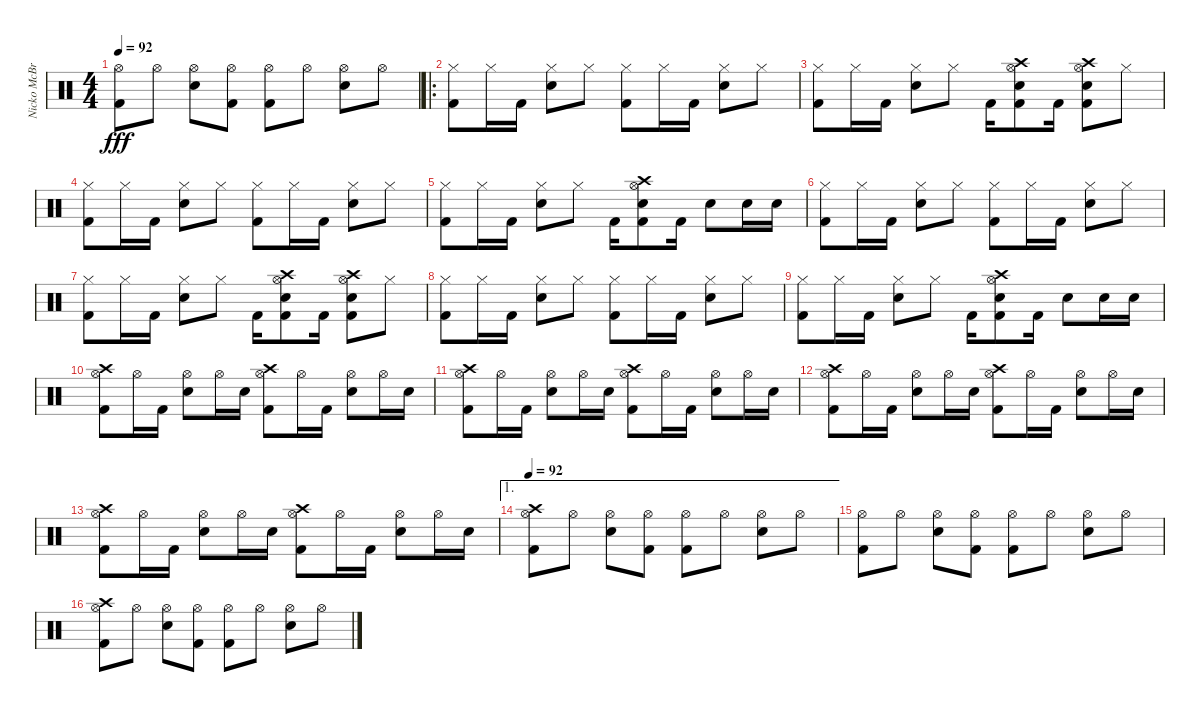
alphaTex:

\track ("Nicko McBrain" "Nicko McBr") {instrument percussion}
\staff {score}
\articulation defaults
\ts (4 4)
\tempo 92
\clef neutral
\ks c
("Hi-Hat (open)" "Kick (hit) 2").8{dy fff} "Hi-Hat (open)".8 ("Hi-Hat (open)" "Snare (hit) 2").8 ("Hi-Hat (open)" "Kick (hit) 2").8 ("Hi-Hat (open)" "Kick (hit) 2").8 "Hi-Hat (open)".8 ("Hi-Hat (open)" "Snare (hit) 2").8 "Hi-Hat (open)".8 |
\ro
("Hi-Hat (closed)" "Kick (hit) 2").8 "Hi-Hat (closed)".16 "Kick (hit) 2".16 ("Hi-Hat (closed)" "Snare (hit) 2").8 "Hi-Hat (closed)".8 ("Hi-Hat (closed)" "Kick (hit) 2").8 "Hi-Hat (closed)".16 "Kick (hit) 2".16 ("Hi-Hat (closed)" "Snare (hit) 2").8 "Hi-Hat (closed)".8 |
("Hi-Hat (closed)" "Kick (hit) 2").8 "Hi-Hat (closed)".16 "Kick (hit) 2".16 ("Hi-Hat (closed)" "Snare (hit) 2").8 "Hi-Hat (closed)".8 "Kick (hit) 2".16 ("Kick (hit) 2" "Snare (hit) 2" "Hi-Hat (open)" "Crash high (hit)").8 "Kick (hit) 2".16 ("Kick (hit) 2" "Snare (hit) 2" "Hi-Hat (open)" "Crash high (hit)").8 "Hi-Hat (closed)".8 |
("Hi-Hat (closed)" "Kick (hit) 2").8 "Hi-Hat (closed)".16 "Kick (hit) 2".16 ("Hi-Hat (closed)" "Snare (hit) 2").8 "Hi-Hat (closed)".8 ("Hi-Hat (closed)" "Kick (hit) 2").8 "Hi-Hat (closed)".16 "Kick (hit) 2".16 ("Hi-Hat (closed)" "Snare (hit) 2").8 "Hi-Hat (closed)".8 |
("Hi-Hat (closed)" "Kick (hit) 2").8 "Hi-Hat (closed)".16 "Kick (hit) 2".16 ("Hi-Hat (closed)" "Snare (hit) 2").8 "Hi-Hat (closed)".8 "Kick (hit) 2".16 ("Kick (hit) 2" "Snare (hit) 2" "Hi-Hat (open)" "Crash high (hit)").8 "Kick (hit) 2".16 "Snare (hit) 2".8 "Snare (hit) 2".16 "Snare (hit) 2".16 |
("Hi-Hat (closed)" "Kick (hit) 2").8 "Hi-Hat (closed)".16 "Kick (hit) 2".16 ("Hi-Hat (closed)" "Snare (hit) 2").8 "Hi-Hat (closed)".8 ("Hi-Hat (closed)" "Kick (hit) 2").8 "Hi-Hat (closed)".16 "Kick (hit) 2".16 ("Hi-Hat (closed)" "Snare (hit) 2").8 "Hi-Hat (closed)".8 |
("Hi-Hat (closed)" "Kick (hit) 2").8 "Hi-Hat (closed)".16 "Kick (hit) 2".16 ("Hi-Hat (closed)" "Snare (hit) 2").8 "Hi-Hat (closed)".8 "Kick (hit) 2".16 ("Kick (hit) 2" "Snare (hit) 2" "Hi-Hat (open)" "Crash high (hit)").8 "Kick (hit) 2".16 ("Kick (hit) 2" "Snare (hit) 2" "Hi-Hat (open)" "Crash high (hit)").8 "Hi-Hat (closed)".8 |
("Hi-Hat (closed)" "Kick (hit) 2").8 "Hi-Hat (closed)".16 "Kick (hit) 2".16 ("Hi-Hat (closed)" "Snare (hit) 2").8 "Hi-Hat (closed)".8 ("Hi-Hat (closed)" "Kick (hit) 2").8 "Hi-Hat (closed)".16 "Kick (hit) 2".16 ("Hi-Hat (closed)" "Snare (hit) 2").8 "Hi-Hat (closed)".8 |
("Hi-Hat (closed)" "Kick (hit) 2").8 "Hi-Hat (closed)".16 "Kick (hit) 2".16 ("Hi-Hat (closed)" "Snare (hit) 2").8 "Hi-Hat (closed)".8 "Kick (hit) 2".16 ("Kick (hit) 2" "Snare (hit) 2" "Hi-Hat (open)" "Crash high (hit)").8 "Kick (hit) 2".16 "Snare (hit) 2".8 "Snare (hit) 2".16 "Snare (hit) 2".16 |
("Hi-Hat (open)" "Kick (hit) 2" "Crash high (hit)").8 "Hi-Hat (open)".16 "Kick (hit) 2".16 ("Hi-Hat (open)" "Snare (hit) 2").8 "Hi-Hat (open)".16 "Snare (hit) 2".16 ("Hi-Hat (open)" "Kick (hit) 2" "Crash high (hit)").8 "Hi-Hat (open)".16 "Kick (hit) 2".16 ("Hi-Hat (open)" "Snare (hit) 2").8 "Hi-Hat (open)".16 "Snare (hit) 2".16 |
("Hi-Hat (open)" "Kick (hit) 2" "Crash high (hit)").8 "Hi-Hat (open)".16 "Kick (hit) 2".16 ("Hi-Hat (open)" "Snare (hit) 2").8 "Hi-Hat (open)".16 "Snare (hit) 2".16 ("Hi-Hat (open)" "Kick (hit) 2" "Crash high (hit)").8 "Hi-Hat (open)".16 "Kick (hit) 2".16 ("Hi-Hat (open)" "Snare (hit) 2").8 "Hi-Hat (open)".16 "Snare (hit) 2".16 |
("Hi-Hat (open)" "Kick (hit) 2" "Crash high (hit)").8 "Hi-Hat (open)".16 "Kick (hit) 2".16 ("Hi-Hat (open)" "Snare (hit) 2").8 "Hi-Hat (open)".16 "Snare (hit) 2".16 ("Hi-Hat (open)" "Kick (hit) 2" "Crash high (hit)").8 "Hi-Hat (open)".16 "Kick (hit) 2".16 ("Hi-Hat (open)" "Snare (hit) 2").8 "Hi-Hat (open)".16 "Snare (hit) 2".16 |
("Hi-Hat (open)" "Kick (hit) 2" "Crash high (hit)").8 "Hi-Hat (open)".16 "Kick (hit) 2".16 ("Hi-Hat (open)" "Snare (hit) 2").8 "Hi-Hat (open)".16 "Snare (hit) 2".16 ("Hi-Hat (open)" "Kick (hit) 2" "Crash high (hit)").8 "Hi-Hat (open)".16 "Kick (hit) 2".16 ("Hi-Hat (open)" "Snare (hit) 2").8 "Hi-Hat (open)".16 "Snare (hit) 2".16 |
\ae 1
\tempo 92
("Hi-Hat (open)" "Kick (hit) 2" "Crash high (hit)").8 "Hi-Hat (open)".8 ("Hi-Hat (open)" "Snare (hit) 2").8 ("Hi-Hat (open)" "Kick (hit) 2").8 ("Hi-Hat (open)" "Kick (hit) 2").8 "Hi-Hat (open)".8 ("Hi-Hat (open)" "Snare (hit) 2").8 "Hi-Hat (open)".8 |
("Hi-Hat (open)" "Kick (hit) 2").8 "Hi-Hat (open)".8 ("Hi-Hat (open)" "Snare (hit) 2").8 ("Hi-Hat (open)" "Kick (hit) 2").8 ("Hi-Hat (open)" "Kick (hit) 2").8 "Hi-Hat (open)".8 ("Hi-Hat (open)" "Snare (hit) 2").8 "Hi-Hat (open)".8 |
("Hi-Hat (open)" "Kick (hit) 2" "Crash high (hit)").8 "Hi-Hat (open)".8 ("Hi-Hat (open)" "Snare (hit) 2").8 ("Hi-Hat (open)" "Kick (hit) 2").8 ("Hi-Hat (open)" "Kick (hit) 2").8 "Hi-Hat (open)".8 ("Hi-Hat (open)" "Snare (hit) 2").8 "Hi-Hat (open)".8
